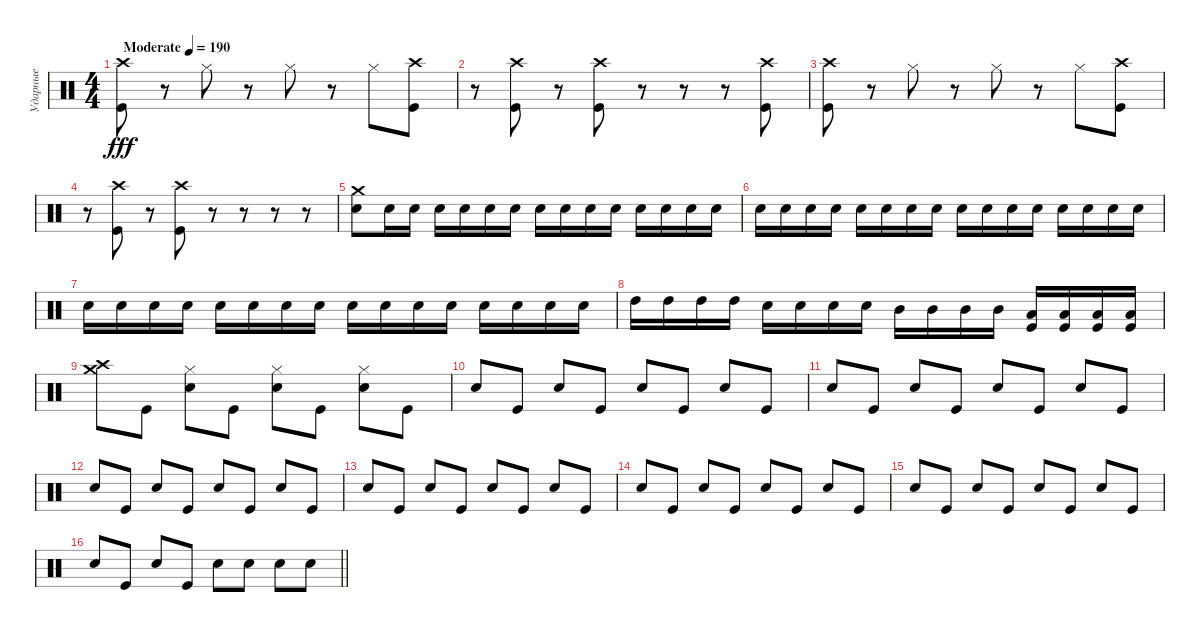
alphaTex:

\track ("Ударные" "Ударные") {instrument percussion}
\staff {score}
\articulation defaults
\ts (4 4)
\tempo (190 "Moderate")
\clef neutral
\ks c
("Crash high (hit)" "Kick (hit)").8{dy fff} r.8 "Hi-Hat (closed)".8 r.8 "Hi-Hat (closed)".8 r.8 "Hi-Hat (closed)".8 ("Crash high (hit)" "Kick (hit)").8 |
r.8 ("Crash high (hit)" "Kick (hit)").8 r.8 ("Crash high (hit)" "Kick (hit)").8 r.8 r.8 r.8 ("Crash high (hit)" "Kick (hit)").8 |
("Crash high (hit)" "Kick (hit)").8 r.8 "Hi-Hat (closed)".8 r.8 "Hi-Hat (closed)".8 r.8 "Hi-Hat (closed)".8 ("Crash high (hit)" "Kick (hit)").8 |
r.8 ("Crash high (hit)" "Kick (hit)").8 r.8 ("Crash high (hit)" "Kick (hit)").8 r.8 r.8 r.8 r.8 |
("Crash medium (hit)" "Electric Snare (hit)").8 "Electric Snare (hit)".16 "Electric Snare (hit)".16 "Electric Snare (hit)".16 "Electric Snare (hit)".16 "Electric Snare (hit)".16 "Electric Snare (hit)".16 "Electric Snare (hit)".16 "Electric Snare (hit)".16 "Electric Snare (hit)".16 "Electric Snare (hit)".16 "Electric Snare (hit)".16 "Electric Snare (hit)".16 "Electric Snare (hit)".16 "Electric Snare (hit)".16 |
"Electric Snare (hit)".16 "Electric Snare (hit)".16 "Electric Snare (hit)".16 "Electric Snare (hit)".16 "Electric Snare (hit)".16 "Electric Snare (hit)".16 "Electric Snare (hit)".16 "Electric Snare (hit)".16 "Electric Snare (hit)".16 "Electric Snare (hit)".16 "Electric Snare (hit)".16 "Electric Snare (hit)".16 "Electric Snare (hit)".16 "Electric Snare (hit)".16 "Electric Snare (hit)".16 "Electric Snare (hit)".16 |
"Electric Snare (hit)".16 "Electric Snare (hit)".16 "Electric Snare (hit)".16 "Electric Snare (hit)".16 "Electric Snare (hit)".16 "Electric Snare (hit)".16 "Electric Snare (hit)".16 "Electric Snare (hit)".16 "Electric Snare (hit)".16 "Electric Snare (hit)".16 "Electric Snare (hit)".16 "Electric Snare (hit)".16 "Electric Snare (hit)".16 "Electric Snare (hit)".16 "Electric Snare (hit)".16 "Electric Snare (hit)".16 |
"High Tom (hit)".16 "High Tom (hit)".16 "High Tom (hit)".16 "High Tom (hit)".16 "Electric Snare (hit)".16 "Electric Snare (hit)".16 "Electric Snare (hit)".16 "Electric Snare (hit)".16 "Mid Tom (hit)".16 "Mid Tom (hit)".16 "Mid Tom (hit)".16 "Mid Tom (hit)".16 ("Low Tom (hit)" "Kick (hit)").16 ("Low Tom (hit)" "Kick (hit)").16 ("Low Tom (hit)" "Kick (hit)").16 ("Low Tom (hit)" "Kick (hit)").16 |
("Crash medium (hit)" "Crash high (hit)").8 "Kick (hit)".8 ("Hi-Hat (closed)" "Electric Snare (hit)").8 "Kick (hit)".8 ("Hi-Hat (closed)" "Electric Snare (hit)").8 "Kick (hit)".8 ("Hi-Hat (closed)" "Electric Snare (hit)").8 "Kick (hit)".8 |
"Electric Snare (hit)".8 "Kick (hit)".8 "Electric Snare (hit)".8 "Kick (hit)".8 "Electric Snare (hit)".8 "Kick (hit)".8 "Electric Snare (hit)".8 "Kick (hit)".8 |
"Electric Snare (hit)".8 "Kick (hit)".8 "Electric Snare (hit)".8 "Kick (hit)".8 "Electric Snare (hit)".8 "Kick (hit)".8 "Electric Snare (hit)".8 "Kick (hit)".8 |
"Electric Snare (hit)".8 "Kick (hit)".8 "Electric Snare (hit)".8 "Kick (hit)".8 "Electric Snare (hit)".8 "Kick (hit)".8 "Electric Snare (hit)".8 "Kick (hit)".8 |
"Electric Snare (hit)".8 "Kick (hit)".8 "Electric Snare (hit)".8 "Kick (hit)".8 "Electric Snare (hit)".8 "Kick (hit)".8 "Electric Snare (hit)".8 "Kick (hit)".8 |
"Electric Snare (hit)".8 "Kick (hit)".8 "Electric Snare (hit)".8 "Kick (hit)".8 "Electric Snare (hit)".8 "Kick (hit)".8 "Electric Snare (hit)".8 "Kick (hit)".8 |
"Electric Snare (hit)".8 "Kick (hit)".8 "Electric Snare (hit)".8 "Kick (hit)".8 "Electric Snare (hit)".8 "Kick (hit)".8 "Electric Snare (hit)".8 "Kick (hit)".8 |
\barLineRight lightlight "Electric Snare (hit)".8 "Kick (hit)".8 "Electric Snare (hit)".8 "Kick (hit)".8 "Electric Snare (hit)".8 "Electric Snare (hit)".8 "Electric Snare (hit)".8 "Electric Snare (hit)".8
